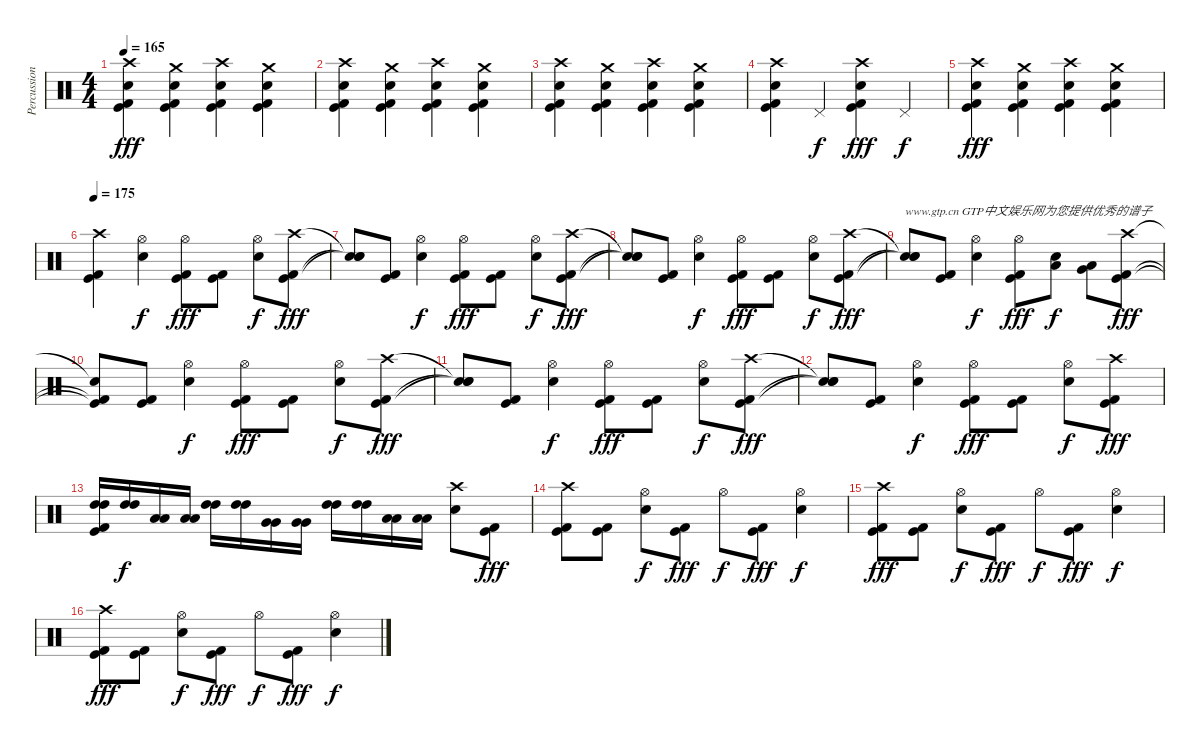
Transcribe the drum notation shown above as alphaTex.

\track ("Percussion" "Percussion") {instrument percussion}
\staff {score}
\articulation defaults
\ts (4 4)
\tempo 165
\clef neutral
\ks c
("Crash high (hit)" "Snare (hit) 2" "Kick (hit)" "Kick (hit) 2").4{dy fff} ("Crash medium (hit)" "Snare (hit) 2" "Kick (hit)" "Kick (hit) 2").4 ("Crash high (hit)" "Snare (hit) 2" "Kick (hit)" "Kick (hit) 2").4 ("Crash medium (hit)" "Snare (hit) 2" "Kick (hit)" "Kick (hit) 2").4 |
("Crash high (hit)" "Snare (hit) 2" "Kick (hit)" "Kick (hit) 2").4 ("Crash medium (hit)" "Snare (hit) 2" "Kick (hit)" "Kick (hit) 2").4 ("Crash high (hit)" "Snare (hit) 2" "Kick (hit)" "Kick (hit) 2").4 ("Crash medium (hit)" "Snare (hit) 2" "Kick (hit)" "Kick (hit) 2").4 |
("Crash high (hit)" "Snare (hit) 2" "Kick (hit)" "Kick (hit) 2").4 ("Crash medium (hit)" "Snare (hit) 2" "Kick (hit)" "Kick (hit) 2").4 ("Crash high (hit)" "Snare (hit) 2" "Kick (hit)" "Kick (hit) 2").4 ("Crash medium (hit)" "Snare (hit) 2" "Kick (hit)" "Kick (hit) 2").4 |
("Crash high (hit)" "Snare (hit) 2" "Kick (hit)" "Kick (hit) 2").4 "Pedal Hi-Hat (hit)".4{dy f} ("Crash high (hit)" "Snare (hit) 2" "Kick (hit)" "Kick (hit) 2").4{dy fff} "Pedal Hi-Hat (hit)".4{dy f} |
("Crash high (hit)" "Snare (hit) 2" "Kick (hit)" "Kick (hit) 2").4{dy fff} ("Crash medium (hit)" "Snare (hit) 2" "Kick (hit)" "Kick (hit) 2").4 ("Crash high (hit)" "Snare (hit) 2" "Kick (hit)" "Kick (hit) 2").4 ("Crash medium (hit)" "Snare (hit) 2" "Kick (hit)" "Kick (hit) 2").4 |
\tempo 175
("Crash high (hit)" "Kick (hit)" "Kick (hit) 2").4 ("Hi-Hat (open)" "Snare (hit) 2").4{dy f} ("Hi-Hat (open)" "Kick (hit)" "Kick (hit) 2").8{dy fff} ("Kick (hit)" "Kick (hit) 2").8 ("Hi-Hat (open)" "Snare (hit) 2").8{dy f} ("Crash high (hit)" "Kick (hit)" "Kick (hit) 2").8{dy fff} |
("Snare (hit)"{t} "Snare (hit)"{t} "Snare (hit)"{t}).8 ("Kick (hit)" "Kick (hit) 2").8 ("Hi-Hat (open)" "Snare (hit) 2").4{dy f} ("Hi-Hat (open)" "Kick (hit)" "Kick (hit) 2").8{dy fff} ("Kick (hit)" "Kick (hit) 2").8 ("Hi-Hat (open)" "Snare (hit) 2").8{dy f} ("Crash high (hit)" "Kick (hit)" "Kick (hit) 2").8{dy fff} |
("Snare (hit)"{t} "Snare (hit)"{t} "Snare (hit)"{t}).8 ("Kick (hit)" "Kick (hit) 2").8 ("Hi-Hat (open)" "Snare (hit) 2").4{dy f} ("Hi-Hat (open)" "Kick (hit)" "Kick (hit) 2").8{dy fff} ("Kick (hit)" "Kick (hit) 2").8 ("Hi-Hat (open)" "Snare (hit) 2").8{dy f} ("Crash high (hit)" "Kick (hit)" "Kick (hit) 2").8{dy fff} |
("Snare (hit)"{t} "Snare (hit)"{t} "Snare (hit)"{t}).8{txt "www.gtp.cn GTP中文娱乐网为您提供优秀的谱子"} ("Kick (hit)" "Kick (hit) 2").8 ("Hi-Hat (open)" "Snare (hit) 2").4{dy f} ("Hi-Hat (open)" "Kick (hit)" "Kick (hit) 2").8{dy fff} ("Low Tom (hit)" "Snare (hit) 2").8{dy f} ("Very Low Tom (hit)" "Low Tom (hit)").8 ("Crash high (hit)" "Kick (hit)" "Kick (hit) 2").8{dy fff} |
("Snare (hit)"{t} "Kick (hit)"{t} "Kick (hit) 2"{t}).8 ("Kick (hit)" "Kick (hit) 2").8 ("Hi-Hat (open)" "Snare (hit) 2").4{dy f} ("Hi-Hat (open)" "Kick (hit)" "Kick (hit) 2").8{dy fff} ("Kick (hit)" "Kick (hit) 2").8 ("Hi-Hat (open)" "Snare (hit) 2").8{dy f} ("Crash high (hit)" "Kick (hit)" "Kick (hit) 2").8{dy fff} |
("Snare (hit)"{t} "Snare (hit)"{t} "Snare (hit)"{t}).8 ("Kick (hit)" "Kick (hit) 2").8 ("Hi-Hat (open)" "Snare (hit) 2").4{dy f} ("Hi-Hat (open)" "Kick (hit)" "Kick (hit) 2").8{dy fff} ("Kick (hit)" "Kick (hit) 2").8 ("Hi-Hat (open)" "Snare (hit) 2").8{dy f} ("Crash high (hit)" "Kick (hit)" "Kick (hit) 2").8{dy fff} |
("Snare (hit)"{t} "Snare (hit)"{t} "Snare (hit)"{t}).8 ("Kick (hit)" "Kick (hit) 2").8 ("Hi-Hat (open)" "Snare (hit) 2").4{dy f} ("Hi-Hat (open)" "Kick (hit)" "Kick (hit) 2").8{dy fff} ("Kick (hit)" "Kick (hit) 2").8 ("Hi-Hat (open)" "Snare (hit) 2").8{dy f} ("Crash high (hit)" "Kick (hit)" "Kick (hit) 2").8{dy fff} |
("High Tom (hit)" "High Tom (hit)" "Kick (hit)" "Kick (hit) 2").16 ("High Tom (hit)" "High Tom (hit)").16{dy f} ("Low Tom (hit)" "Low Tom (hit)").16 ("Low Tom (hit)" "Low Tom (hit)").16 ("High Tom (hit)" "High Tom (hit)").16 ("High Tom (hit)" "High Tom (hit)").16 ("Very Low Tom (hit)" "Very Low Tom (hit)").16 ("Very Low Tom (hit)" "Very Low Tom (hit)").16 ("High Tom (hit)" "High Tom (hit)").16 ("High Tom (hit)" "High Tom (hit)").16 ("Low Floor Tom (hit)" "Low Floor Tom (hit)").16 ("Low Floor Tom (hit)" "Low Floor Tom (hit)").16 ("Crash high (hit)" "Snare (hit) 2").8 ("Kick (hit)" "Kick (hit) 2").8{dy fff} |
("Crash high (hit)" "Kick (hit)" "Kick (hit) 2").8 ("Kick (hit)" "Kick (hit) 2").8 ("Hi-Hat (open)" "Electric Snare (hit)").8{dy f} ("Kick (hit)" "Kick (hit) 2").8{dy fff} "Hi-Hat (open)".8{dy f} ("Kick (hit)" "Kick (hit) 2").8{dy fff} ("Hi-Hat (open)" "Electric Snare (hit)").4{dy f} |
("Crash high (hit)" "Kick (hit)" "Kick (hit) 2").8{dy fff} ("Kick (hit)" "Kick (hit) 2").8 ("Hi-Hat (open)" "Electric Snare (hit)").8{dy f} ("Kick (hit)" "Kick (hit) 2").8{dy fff} "Hi-Hat (open)".8{dy f} ("Kick (hit)" "Kick (hit) 2").8{dy fff} ("Hi-Hat (open)" "Electric Snare (hit)").4{dy f} |
("Crash high (hit)" "Kick (hit)" "Kick (hit) 2").8{dy fff} ("Kick (hit)" "Kick (hit) 2").8 ("Hi-Hat (open)" "Electric Snare (hit)").8{dy f} ("Kick (hit)" "Kick (hit) 2").8{dy fff} "Hi-Hat (open)".8{dy f} ("Kick (hit)" "Kick (hit) 2").8{dy fff} ("Hi-Hat (open)" "Electric Snare (hit)").4{dy f}
